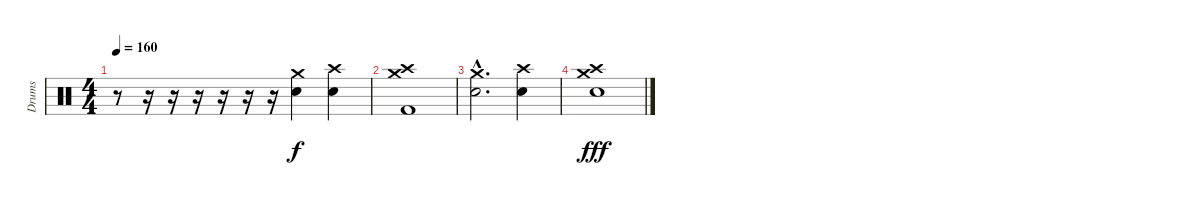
\track ("Drums" "Drums") {instrument percussion}
\staff {score}
\articulation defaults
\ts (4 4)
\tempo 160
\clef neutral
\ks c
r.8{dy f} r.16 r.16 r.16 r.16 r.16 r.16 ("Electric Snare (hit)" "Crash medium (hit)").4 ("Electric Snare (hit)" "Crash high (hit)").4 |
("Crash high (hit)" "Crash medium (hit)" "Kick (hit) 2").1 |
("Crash medium (hit)"{hac} "Electric Snare (hit)"{hac}).2{d} ("Electric Snare (hit)" "Crash high (hit)").4 |
("Crash high (hit)" "Crash medium (hit)" "Electric Snare (hit)").1{dy fff}
